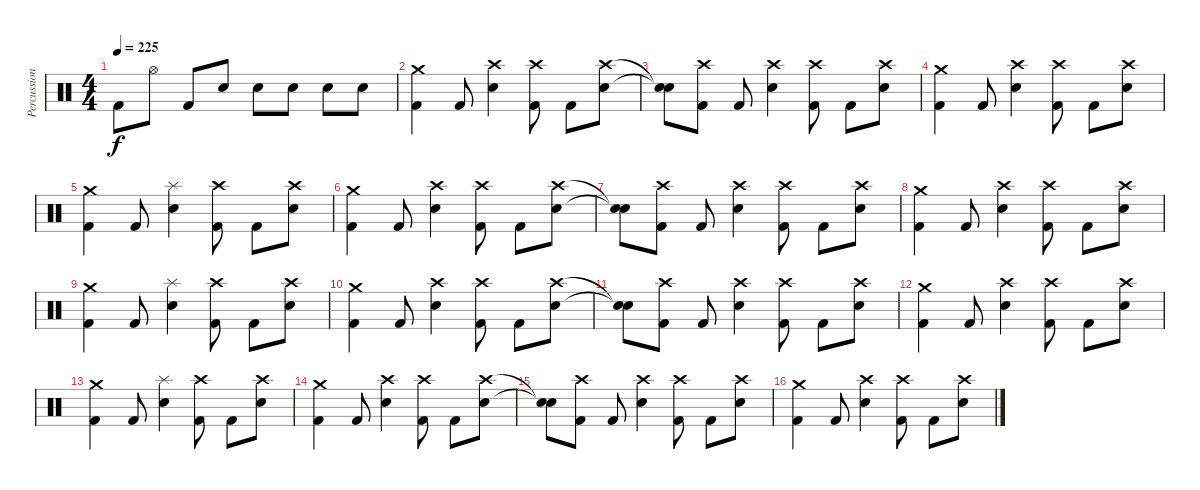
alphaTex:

\track ("Percussion" "Percussion") {instrument percussion}
\staff {score}
\articulation defaults
\ts (4 4)
\tempo 225
\clef neutral
\ks c "Kick (hit) 2".8{dy f} "Hi-Hat (open)".8 "Kick (hit) 2".8 "Snare (hit) 2".8 "Snare (hit) 2".8 "Snare (hit) 2".8 "Snare (hit) 2".8 "Snare (hit) 2".8
|
("Crash medium (hit)" "Kick (hit) 2").4 "Kick (hit) 2".8 ("Crash high (hit)" "Snare (hit) 2").4 ("Crash high (hit)" "Kick (hit) 2").8 "Kick (hit) 2".8 ("Crash high (hit)" "Snare (hit) 2").8 |
("Snare (hit)"{t} "Snare (hit)"{t}).8 ("Crash high (hit)" "Kick (hit) 2").8 "Kick (hit) 2".8 ("Crash high (hit)" "Snare (hit) 2").4 ("Crash high (hit)" "Kick (hit) 2").8 "Kick (hit) 2".8 ("Crash high (hit)" "Snare (hit) 2").8 |
("Crash medium (hit)" "Kick (hit) 2").4 "Kick (hit) 2".8 ("Crash high (hit)" "Snare (hit) 2").4 ("Crash high (hit)" "Kick (hit) 2").8 "Kick (hit) 2".8 ("Crash high (hit)" "Snare (hit) 2").8 |
("Crash medium (hit)" "Kick (hit) 2").4 "Kick (hit) 2".8 ("Splash (hit)" "Snare (hit) 2").4 ("Crash high (hit)" "Kick (hit) 2").8 "Kick (hit) 2".8 ("Crash high (hit)" "Snare (hit) 2").8 |
("Crash medium (hit)" "Kick (hit) 2").4 "Kick (hit) 2".8 ("Crash high (hit)" "Snare (hit) 2").4 ("Crash high (hit)" "Kick (hit) 2").8 "Kick (hit) 2".8 ("Crash high (hit)" "Snare (hit) 2").8 |
("Snare (hit)"{t} "Snare (hit)"{t}).8 ("Crash high (hit)" "Kick (hit) 2").8 "Kick (hit) 2".8 ("Crash high (hit)" "Snare (hit) 2").4 ("Crash high (hit)" "Kick (hit) 2").8 "Kick (hit) 2".8 ("Crash high (hit)" "Snare (hit) 2").8 |
("Crash medium (hit)" "Kick (hit) 2").4 "Kick (hit) 2".8 ("Crash high (hit)" "Snare (hit) 2").4 ("Crash high (hit)" "Kick (hit) 2").8 "Kick (hit) 2".8 ("Crash high (hit)" "Snare (hit) 2").8 |
("Crash medium (hit)" "Kick (hit) 2").4 "Kick (hit) 2".8 ("Splash (hit)" "Snare (hit) 2").4 ("Crash high (hit)" "Kick (hit) 2").8 "Kick (hit) 2".8 ("Crash high (hit)" "Snare (hit) 2").8 |
("Crash medium (hit)" "Kick (hit) 2").4 "Kick (hit) 2".8 ("Crash high (hit)" "Snare (hit) 2").4 ("Crash high (hit)" "Kick (hit) 2").8 "Kick (hit) 2".8 ("Crash high (hit)" "Snare (hit) 2").8 |
("Snare (hit)"{t} "Snare (hit)"{t}).8 ("Crash high (hit)" "Kick (hit) 2").8 "Kick (hit) 2".8 ("Crash high (hit)" "Snare (hit) 2").4 ("Crash high (hit)" "Kick (hit) 2").8 "Kick (hit) 2".8 ("Crash high (hit)" "Snare (hit) 2").8 |
("Crash medium (hit)" "Kick (hit) 2").4 "Kick (hit) 2".8 ("Crash high (hit)" "Snare (hit) 2").4 ("Crash high (hit)" "Kick (hit) 2").8 "Kick (hit) 2".8 ("Crash high (hit)" "Snare (hit) 2").8 |
("Crash medium (hit)" "Kick (hit) 2").4 "Kick (hit) 2".8 ("Splash (hit)" "Snare (hit) 2").4 ("Crash high (hit)" "Kick (hit) 2").8 "Kick (hit) 2".8 ("Crash high (hit)" "Snare (hit) 2").8 |
("Crash medium (hit)" "Kick (hit) 2").4 "Kick (hit) 2".8 ("Crash high (hit)" "Snare (hit) 2").4 ("Crash high (hit)" "Kick (hit) 2").8 "Kick (hit) 2".8 ("Crash high (hit)" "Snare (hit) 2").8 |
("Snare (hit)"{t} "Snare (hit)"{t}).8 ("Crash high (hit)" "Kick (hit) 2").8 "Kick (hit) 2".8 ("Crash high (hit)" "Snare (hit) 2").4 ("Crash high (hit)" "Kick (hit) 2").8 "Kick (hit) 2".8 ("Crash high (hit)" "Snare (hit) 2").8 |
("Crash medium (hit)" "Kick (hit) 2").4 "Kick (hit) 2".8 ("Crash high (hit)" "Snare (hit) 2").4 ("Crash high (hit)" "Kick (hit) 2").8 "Kick (hit) 2".8 ("Crash high (hit)" "Snare (hit) 2").8
